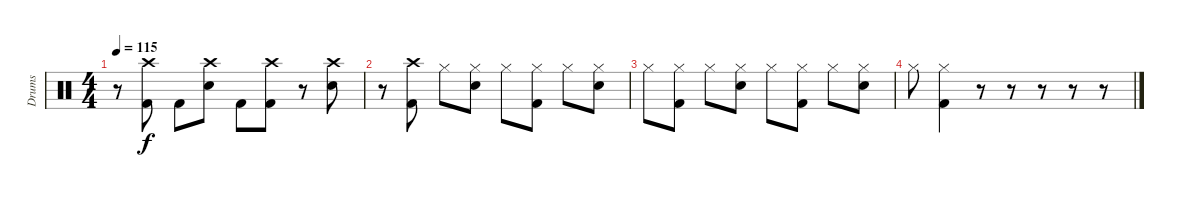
\track ("Drums" "Drums") {instrument percussion}
\staff {score}
\articulation defaults
\ts (4 4)
\tempo 115
\clef neutral
\ks c
r.8{dy f} ("Kick (hit) 2" "Crash high (hit)").8 "Kick (hit) 2".8 ("Snare (hit) 2" "Crash high (hit)").8 "Kick (hit) 2".8 ("Kick (hit) 2" "Crash high (hit)").8 r.8 ("Snare (hit) 2" "Crash high (hit)").8 |
r.8 ("Kick (hit) 2" "Crash high (hit)").8 "Hi-Hat (closed)".8 ("Snare (hit) 2" "Hi-Hat (closed)").8 "Hi-Hat (closed)".8 ("Kick (hit) 2" "Hi-Hat (closed)").8 "Hi-Hat (closed)".8 ("Snare (hit) 2" "Hi-Hat (closed)").8 |
"Hi-Hat (closed)".8 ("Kick (hit) 2" "Hi-Hat (closed)").8 "Hi-Hat (closed)".8 ("Snare (hit) 2" "Hi-Hat (closed)").8 "Hi-Hat (closed)".8 ("Kick (hit) 2" "Hi-Hat (closed)").8 "Hi-Hat (closed)".8 ("Snare (hit) 2" "Hi-Hat (closed)").8 |
"Hi-Hat (closed)".8 ("Kick (hit) 2" "Hi-Hat (closed)").4 r.8 r.8 r.8 r.8 r.8
